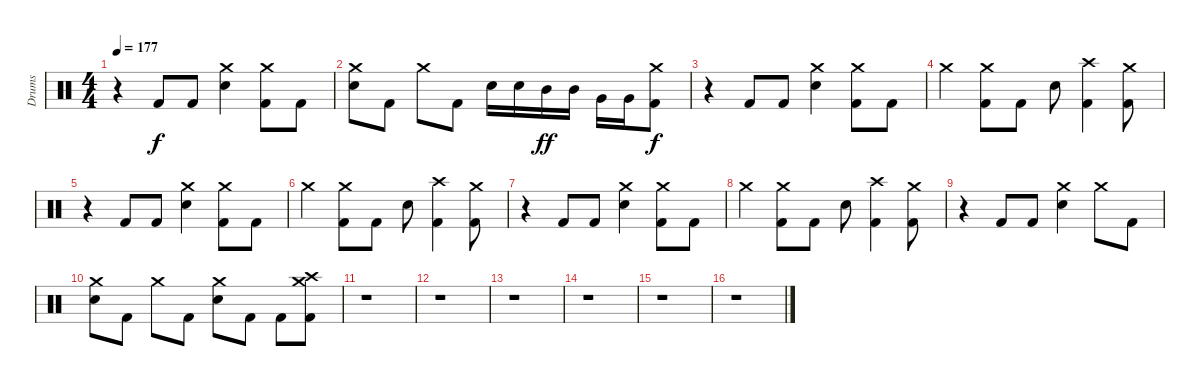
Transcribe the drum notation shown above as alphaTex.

\track ("Drums" "Drums") {instrument percussion}
\staff {score}
\articulation defaults
\ts (4 4)
\tempo 177
\clef neutral
\ks c
r.4{dy f} "Kick (hit) 2".8 "Kick (hit) 2".8 ("Crash medium (hit)" "Snare (hit) 2").4 ("Crash medium (hit)" "Kick (hit) 2").8 "Kick (hit) 2".8 |
("Crash medium (hit)" "Snare (hit) 2").8 "Kick (hit) 2".8 "Crash medium (hit)".8 "Kick (hit) 2".8 "Snare (hit) 2".16 "Snare (hit) 2".16 "Mid Tom (hit)".16{dy ff} "Mid Tom (hit)".16 "Very Low Tom (hit)".16 "Very Low Tom (hit)".16 ("Crash medium (hit)" "Kick (hit) 2").8{dy f} |
r.4 "Kick (hit) 2".8 "Kick (hit) 2".8 ("Crash medium (hit)" "Snare (hit) 2").4 ("Crash medium (hit)" "Kick (hit) 2").8 "Kick (hit) 2".8 |
"Crash medium (hit)".4 ("Crash medium (hit)" "Kick (hit) 2").8 "Kick (hit) 2".8 "Snare (hit) 2".8 ("Crash high (hit)" "Kick (hit) 2").4 ("Crash medium (hit)" "Kick (hit) 2").8 |
r.4 "Kick (hit) 2".8 "Kick (hit) 2".8 ("Crash medium (hit)" "Snare (hit) 2").4 ("Crash medium (hit)" "Kick (hit) 2").8 "Kick (hit) 2".8 |
"Crash medium (hit)".4 ("Crash medium (hit)" "Kick (hit) 2").8 "Kick (hit) 2".8 "Snare (hit) 2".8 ("Crash high (hit)" "Kick (hit) 2").4 ("Crash medium (hit)" "Kick (hit) 2").8 |
r.4 "Kick (hit) 2".8 "Kick (hit) 2".8 ("Crash medium (hit)" "Snare (hit) 2").4 ("Crash medium (hit)" "Kick (hit) 2").8 "Kick (hit) 2".8 |
"Crash medium (hit)".4 ("Crash medium (hit)" "Kick (hit) 2").8 "Kick (hit) 2".8 "Snare (hit) 2".8 ("Crash high (hit)" "Kick (hit) 2").4 ("Crash medium (hit)" "Kick (hit) 2").8 |
r.4 "Kick (hit) 2".8 "Kick (hit) 2".8 ("Crash medium (hit)" "Snare (hit) 2").4 "Crash medium (hit)".8 "Kick (hit) 2".8 |
("Crash medium (hit)" "Snare (hit) 2").8 "Kick (hit) 2".8 "Crash medium (hit)".8 "Kick (hit) 2".8 ("Crash medium (hit)" "Snare (hit) 2").8 "Kick (hit) 2".8 "Kick (hit) 2".8 ("Crash high (hit)" "Crash medium (hit)" "Kick (hit) 2").8 |
r.1 |
r.1 |
r.1{volume 0} |
r.1 |
r.1 |
r.1
